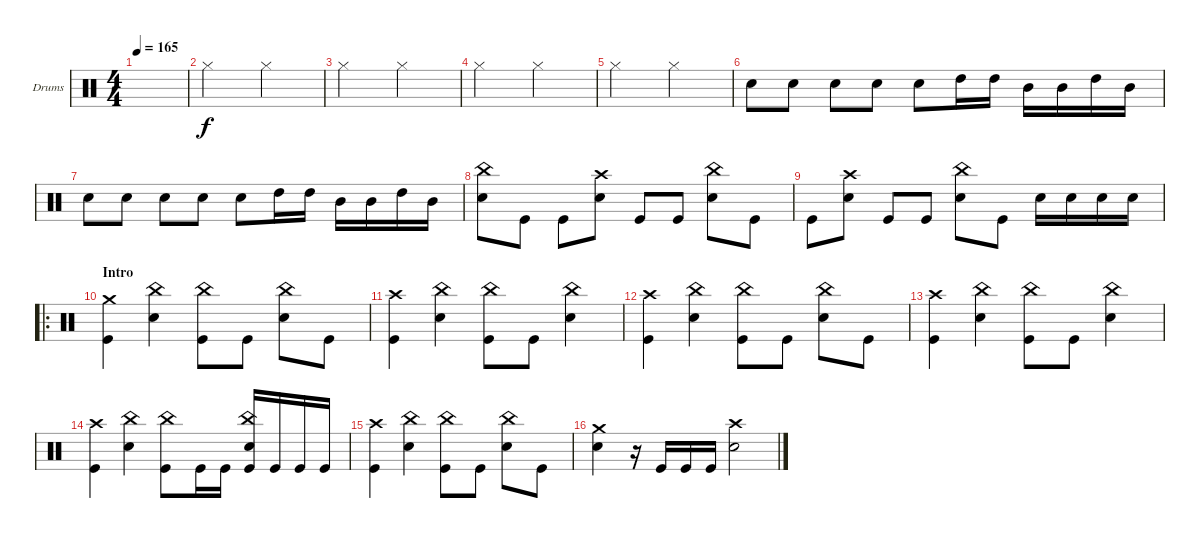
\bracketExtendMode groupsimilarinstruments
\firstSystemTrackNameOrientation horizontal
\otherSystemsTrackNameOrientation horizontal
\track ("Drums" "Drums") {solo instrument percussion}
\staff {score}
\articulation defaults
\ts (4 4)
\beaming (8 2 2 2 2)
\tempo 165
\clef neutral
\ks c
|
"Hi-Hat (closed)".2 "Hi-Hat (closed)".2 |
"Hi-Hat (closed)".2 "Hi-Hat (closed)".2 |
"Hi-Hat (closed)".2 "Hi-Hat (closed)".2 |
"Hi-Hat (closed)".2 "Hi-Hat (closed)".2 |
"Snare (hit) 2".8 "Snare (hit) 2".8 "Snare (hit) 2".8 "Snare (hit) 2".8 "Snare (hit) 2".8 "High Tom (hit)".16 "High Tom (hit)".16 "Mid Tom (hit)".16 "Mid Tom (hit)".16 "High Tom (hit)".16 "Mid Tom (hit)".16 |
"Snare (hit) 2".8 "Snare (hit) 2".8 "Snare (hit) 2".8 "Snare (hit) 2".8 "Snare (hit) 2".8 "High Tom (hit)".16 "High Tom (hit)".16 "Mid Tom (hit)".16 "Mid Tom (hit)".16 "High Tom (hit)".16 "Mid Tom (hit)".16 |
("Snare (hit) 2" "China (hit)").8 "Kick (hit)".8 "Kick (hit)".8 ("Snare (hit) 2" "Crash high (hit)").8 "Kick (hit)".8 "Kick (hit)".8 ("Snare (hit) 2" "China (hit)").8 "Kick (hit)".8 |
"Kick (hit)".8 ("Snare (hit) 2" "Crash high (hit)").8 "Kick (hit)".8 "Kick (hit)".8 ("Snare (hit) 2" "China (hit)").8 "Kick (hit)".8 "Snare (hit) 2".16 "Snare (hit) 2".16 "Snare (hit) 2".16 "Snare (hit) 2".16 |
\ro
\section ("" "Intro ")
("Kick (hit)" "Crash medium (hit)").4 ("Snare (hit) 2" "China (hit)").4 ("Kick (hit)" "China (hit)").8 "Kick (hit)".8 ("Snare (hit) 2" "China (hit)").8 "Kick (hit)".8 |
("Kick (hit)" "Crash high (hit)").4 ("Snare (hit) 2" "China (hit)").4 ("Kick (hit)" "China (hit)").8 "Kick (hit)".8 ("Snare (hit) 2" "China (hit)").4 |
("Kick (hit)" "Crash high (hit)").4 ("Snare (hit) 2" "China (hit)").4 ("Kick (hit)" "China (hit)").8 "Kick (hit)".8 ("Snare (hit) 2" "China (hit)").8 "Kick (hit)".8 |
("Kick (hit)" "Crash high (hit)").4 ("Snare (hit) 2" "China (hit)").4 ("Kick (hit)" "China (hit)").8 "Kick (hit)".8 ("Snare (hit) 2" "China (hit)").4 |
("Kick (hit)" "Crash high (hit)").4 ("Snare (hit) 2" "China (hit)").4 ("China (hit)" "Kick (hit)").8 "Kick (hit)".16 "Kick (hit)".16 ("Kick (hit)" "Snare (hit) 2" "China (hit)").16 "Kick (hit)".16 "Kick (hit)".16 "Kick (hit)".16 |
("Kick (hit)" "Crash high (hit)").4 ("Snare (hit) 2" "China (hit)").4 ("Kick (hit)" "China (hit)").8 "Kick (hit)".8 ("Snare (hit) 2" "China (hit)").8 "Kick (hit)".8 |
("Snare (hit) 2" "Crash medium (hit)").4 r.16 "Kick (hit)".16 "Kick (hit)".16 "Kick (hit)".16 ("Crash high (hit)" "Snare (hit) 2").2
